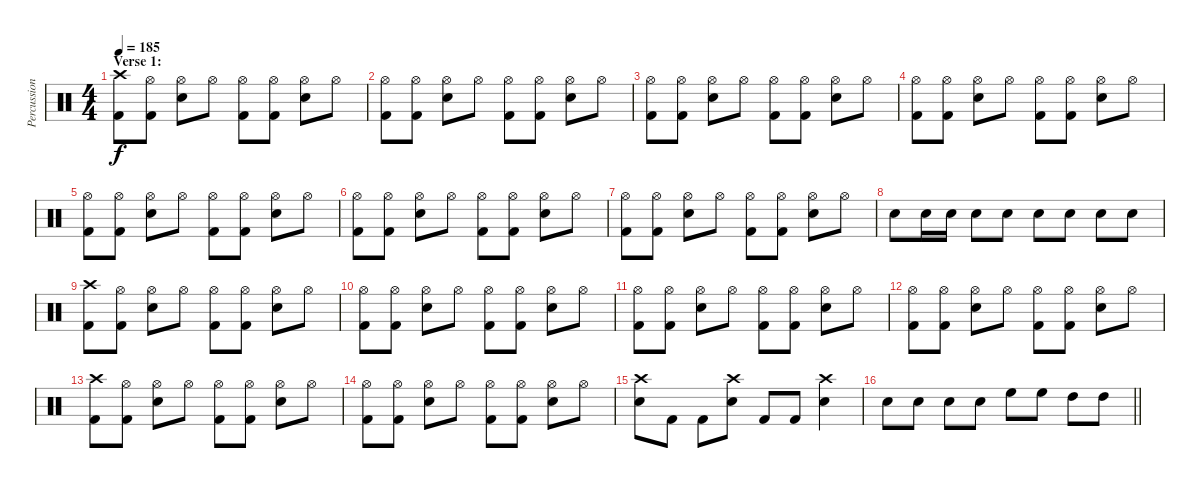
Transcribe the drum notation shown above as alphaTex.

\track ("Percussion" "Percussion") {instrument percussion}
\staff {score}
\articulation defaults
\ts (4 4)
\section ("" "Verse 1:")
\tempo 185
\clef neutral
\ks c
("Crash high (hit)" "Kick (hit) 2").8{dy f} ("Hi-Hat (open)" "Kick (hit) 2").8 ("Hi-Hat (open)" "Snare (hit) 2").8 "Hi-Hat (open)".8 ("Hi-Hat (open)" "Kick (hit) 2").8 ("Hi-Hat (open)" "Kick (hit) 2").8 ("Hi-Hat (open)" "Snare (hit) 2").8 "Hi-Hat (open)".8 |
("Hi-Hat (open)" "Kick (hit) 2").8 ("Hi-Hat (open)" "Kick (hit) 2").8 ("Hi-Hat (open)" "Snare (hit) 2").8 "Hi-Hat (open)".8 ("Hi-Hat (open)" "Kick (hit) 2").8 ("Hi-Hat (open)" "Kick (hit) 2").8 ("Hi-Hat (open)" "Snare (hit) 2").8 "Hi-Hat (open)".8 |
("Hi-Hat (open)" "Kick (hit) 2").8 ("Hi-Hat (open)" "Kick (hit) 2").8 ("Hi-Hat (open)" "Snare (hit) 2").8 "Hi-Hat (open)".8 ("Hi-Hat (open)" "Kick (hit) 2").8 ("Hi-Hat (open)" "Kick (hit) 2").8 ("Hi-Hat (open)" "Snare (hit) 2").8 "Hi-Hat (open)".8 |
("Hi-Hat (open)" "Kick (hit) 2").8 ("Hi-Hat (open)" "Kick (hit) 2").8 ("Hi-Hat (open)" "Snare (hit) 2").8 "Hi-Hat (open)".8 ("Hi-Hat (open)" "Kick (hit) 2").8 ("Hi-Hat (open)" "Kick (hit) 2").8 ("Hi-Hat (open)" "Snare (hit) 2").8 "Hi-Hat (open)".8 |
("Hi-Hat (open)" "Kick (hit) 2").8 ("Hi-Hat (open)" "Kick (hit) 2").8 ("Hi-Hat (open)" "Snare (hit) 2").8 "Hi-Hat (open)".8 ("Hi-Hat (open)" "Kick (hit) 2").8 ("Hi-Hat (open)" "Kick (hit) 2").8 ("Hi-Hat (open)" "Snare (hit) 2").8 "Hi-Hat (open)".8 |
("Hi-Hat (open)" "Kick (hit) 2").8 ("Hi-Hat (open)" "Kick (hit) 2").8 ("Hi-Hat (open)" "Snare (hit) 2").8 "Hi-Hat (open)".8 ("Hi-Hat (open)" "Kick (hit) 2").8 ("Hi-Hat (open)" "Kick (hit) 2").8 ("Hi-Hat (open)" "Snare (hit) 2").8 "Hi-Hat (open)".8 |
("Hi-Hat (open)" "Kick (hit) 2").8 ("Hi-Hat (open)" "Kick (hit) 2").8 ("Hi-Hat (open)" "Snare (hit) 2").8 "Hi-Hat (open)".8 ("Hi-Hat (open)" "Kick (hit) 2").8 ("Hi-Hat (open)" "Kick (hit) 2").8 ("Hi-Hat (open)" "Snare (hit) 2").8 "Hi-Hat (open)".8 |
"Snare (hit) 2".8 "Snare (hit) 2".16 "Snare (hit) 2".16 "Snare (hit) 2".8 "Snare (hit) 2".8 "Snare (hit) 2".8 "Snare (hit) 2".8 "Snare (hit) 2".8 "Snare (hit) 2".8 |
("Crash high (hit)" "Kick (hit) 2").8 ("Hi-Hat (open)" "Kick (hit) 2").8 ("Hi-Hat (open)" "Snare (hit) 2").8 "Hi-Hat (open)".8 ("Hi-Hat (open)" "Kick (hit) 2").8 ("Hi-Hat (open)" "Kick (hit) 2").8 ("Hi-Hat (open)" "Snare (hit) 2").8 "Hi-Hat (open)".8 |
("Hi-Hat (open)" "Kick (hit) 2").8 ("Hi-Hat (open)" "Kick (hit) 2").8 ("Hi-Hat (open)" "Snare (hit) 2").8 "Hi-Hat (open)".8 ("Hi-Hat (open)" "Kick (hit) 2").8 ("Hi-Hat (open)" "Kick (hit) 2").8 ("Hi-Hat (open)" "Snare (hit) 2").8 "Hi-Hat (open)".8 |
("Hi-Hat (open)" "Kick (hit) 2").8 ("Hi-Hat (open)" "Kick (hit) 2").8 ("Hi-Hat (open)" "Snare (hit) 2").8 "Hi-Hat (open)".8 ("Hi-Hat (open)" "Kick (hit) 2").8 ("Hi-Hat (open)" "Kick (hit) 2").8 ("Hi-Hat (open)" "Snare (hit) 2").8 "Hi-Hat (open)".8 |
("Hi-Hat (open)" "Kick (hit) 2").8 ("Hi-Hat (open)" "Kick (hit) 2").8 ("Hi-Hat (open)" "Snare (hit) 2").8 "Hi-Hat (open)".8 ("Hi-Hat (open)" "Kick (hit) 2").8 ("Hi-Hat (open)" "Kick (hit) 2").8 ("Hi-Hat (open)" "Snare (hit) 2").8 "Hi-Hat (open)".8 |
("Crash high (hit)" "Kick (hit) 2").8 ("Hi-Hat (open)" "Kick (hit) 2").8 ("Hi-Hat (open)" "Snare (hit) 2").8 "Hi-Hat (open)".8 ("Hi-Hat (open)" "Kick (hit) 2").8 ("Hi-Hat (open)" "Kick (hit) 2").8 ("Hi-Hat (open)" "Snare (hit) 2").8 "Hi-Hat (open)".8 |
("Hi-Hat (open)" "Kick (hit) 2").8 ("Hi-Hat (open)" "Kick (hit) 2").8 ("Hi-Hat (open)" "Snare (hit) 2").8 "Hi-Hat (open)".8 ("Hi-Hat (open)" "Kick (hit) 2").8 ("Hi-Hat (open)" "Kick (hit) 2").8 ("Hi-Hat (open)" "Snare (hit) 2").8 "Hi-Hat (open)".8 |
("Crash high (hit)" "Snare (hit) 2").8 "Kick (hit) 2".8 "Kick (hit) 2".8 ("Crash high (hit)" "Snare (hit) 2").8 "Kick (hit) 2".8 "Kick (hit) 2".8 ("Crash high (hit)" "Snare (hit) 2").4 |
\barLineRight lightlight "Snare (hit) 2".8 "Snare (hit) 2".8 "Snare (hit) 2".8 "Snare (hit) 2".8 "High Floor Tom (hit)".8 "High Floor Tom (hit)".8 "High Tom (hit)".8 "High Tom (hit)".8
